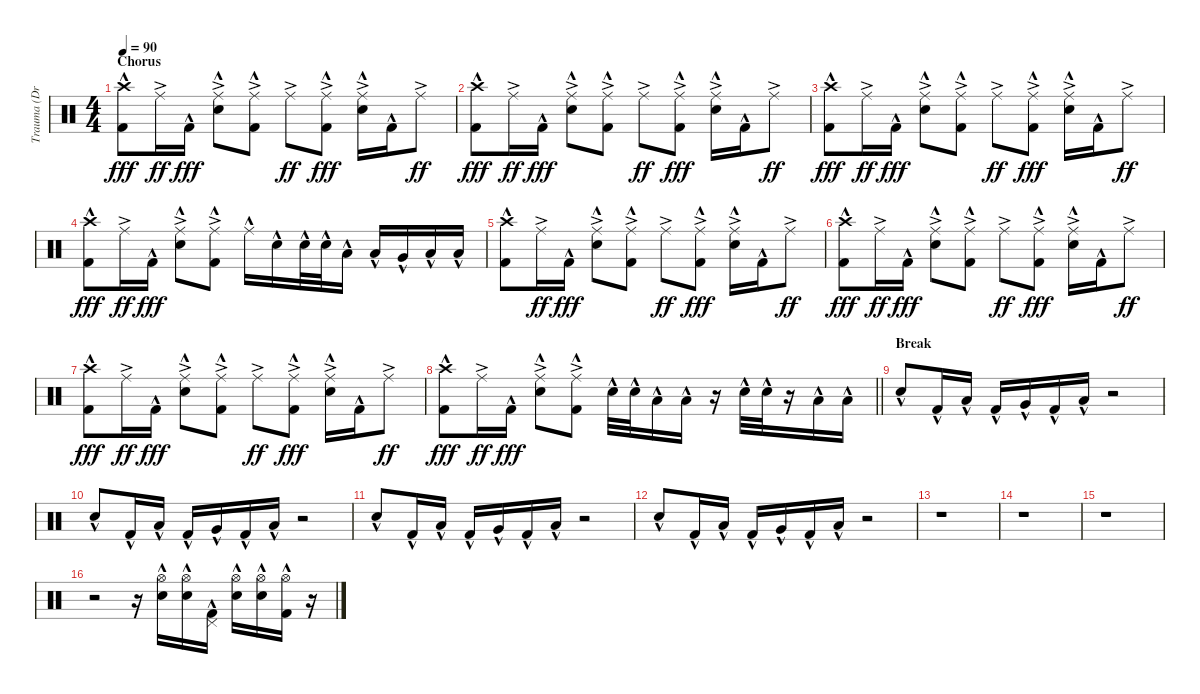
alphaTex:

\track ("Trauma (Drums)" "Trauma (Dr") {instrument percussion}
\staff {score}
\articulation defaults
\ts (4 4)
\section ("" "Chorus")
\tempo 90
\clef neutral
\ks c
("Crash high (hit)"{hac} "Kick (hit) 2"{hac}).8{dy fff} "Ride (middle)"{ac}.16{dy ff} "Kick (hit) 2"{hac}.16{dy fff} ("Ride (middle)"{ac} "Snare (hit) 2"{hac}).8 ("Ride (middle)"{ac} "Kick (hit) 2"{hac}).8 "Ride (middle)"{ac}.8{dy ff} ("Ride (middle)"{ac} "Kick (hit) 2"{hac}).8{dy fff} ("Ride (middle)"{ac} "Snare (hit) 2"{hac}).16 "Kick (hit) 2"{hac}.16 "Ride (middle)"{ac}.8{dy ff} |
("Crash high (hit)"{hac} "Kick (hit) 2"{hac}).8{dy fff} "Ride (middle)"{ac}.16{dy ff} "Kick (hit) 2"{hac}.16{dy fff} ("Ride (middle)"{ac} "Snare (hit) 2"{hac}).8 ("Ride (middle)"{ac} "Kick (hit) 2"{hac}).8 "Ride (middle)"{ac}.8{dy ff} ("Ride (middle)"{ac} "Kick (hit) 2"{hac}).8{dy fff} ("Ride (middle)"{ac} "Snare (hit) 2"{hac}).16 "Kick (hit) 2"{hac}.16 "Ride (middle)"{ac}.8{dy ff} |
("Crash high (hit)"{hac} "Kick (hit) 2"{hac}).8{dy fff} "Ride (middle)"{ac}.16{dy ff} "Kick (hit) 2"{hac}.16{dy fff} ("Ride (middle)"{ac} "Snare (hit) 2"{hac}).8 ("Ride (middle)"{ac} "Kick (hit) 2"{hac}).8 "Ride (middle)"{ac}.8{dy ff} ("Ride (middle)"{ac} "Kick (hit) 2"{hac}).8{dy fff} ("Ride (middle)"{ac} "Snare (hit) 2"{hac}).16 "Kick (hit) 2"{hac}.16 "Ride (middle)"{ac}.8{dy ff} |
("Crash high (hit)"{hac} "Kick (hit) 2"{hac}).8{dy fff} "Ride (middle)"{ac}.16{dy ff} "Kick (hit) 2"{hac}.16{dy fff} ("Ride (middle)"{ac} "Snare (hit) 2"{hac}).8 ("Ride (middle)"{ac} "Kick (hit) 2"{hac}).8 "Ride (middle)"{hac}.16 "Snare (hit) 2"{hac}.16 "Snare (hit) 2"{hac}.32 "Snare (hit) 2"{hac}.32 "Low Tom (hit)"{hac}.16 "Low Tom (hit)"{hac}.16 "Very Low Tom (hit)"{hac}.16 "Low Floor Tom (hit)"{hac}.16 "Low Floor Tom (hit)"{hac}.16 |
("Crash high (hit)"{hac} "Kick (hit) 2"{hac}).8 "Ride (middle)"{ac}.16{dy ff} "Kick (hit) 2"{hac}.16{dy fff} ("Ride (middle)"{ac} "Snare (hit) 2"{hac}).8 ("Ride (middle)"{ac} "Kick (hit) 2"{hac}).8 "Ride (middle)"{ac}.8{dy ff} ("Ride (middle)"{ac} "Kick (hit) 2"{hac}).8{dy fff} ("Ride (middle)"{ac} "Snare (hit) 2"{hac}).16 "Kick (hit) 2"{hac}.16 "Ride (middle)"{ac}.8{dy ff} |
("Crash high (hit)"{hac} "Kick (hit) 2"{hac}).8{dy fff} "Ride (middle)"{ac}.16{dy ff} "Kick (hit) 2"{hac}.16{dy fff} ("Ride (middle)"{ac} "Snare (hit) 2"{hac}).8 ("Ride (middle)"{ac} "Kick (hit) 2"{hac}).8 "Ride (middle)"{ac}.8{dy ff} ("Ride (middle)"{ac} "Kick (hit) 2"{hac}).8{dy fff} ("Ride (middle)"{ac} "Snare (hit) 2"{hac}).16 "Kick (hit) 2"{hac}.16 "Ride (middle)"{ac}.8{dy ff} |
("Crash high (hit)"{hac} "Kick (hit) 2"{hac}).8{dy fff} "Ride (middle)"{ac}.16{dy ff} "Kick (hit) 2"{hac}.16{dy fff} ("Ride (middle)"{ac} "Snare (hit) 2"{hac}).8 ("Ride (middle)"{ac} "Kick (hit) 2"{hac}).8 "Ride (middle)"{ac}.8{dy ff} ("Ride (middle)"{ac} "Kick (hit) 2"{hac}).8{dy fff} ("Ride (middle)"{ac} "Snare (hit) 2"{hac}).16 "Kick (hit) 2"{hac}.16 "Ride (middle)"{ac}.8{dy ff} |
\barLineRight lightlight
("Crash high (hit)"{hac} "Kick (hit) 2"{hac}).8{dy fff} "Ride (middle)"{ac}.16{dy ff} "Kick (hit) 2"{hac}.16{dy fff} ("Ride (middle)"{ac} "Snare (hit) 2"{hac}).8 ("Ride (middle)"{ac} "Kick (hit) 2"{hac}).8 "Snare (hit) 2"{hac}.32 "Snare (hit) 2"{hac}.32 "Low Tom (hit)"{hac}.16 "Low Tom (hit)"{hac}.16 r.16 "Snare (hit) 2"{hac}.32 "Snare (hit) 2"{hac}.32 r.16 "Low Floor Tom (hit)"{hac}.16 "Low Floor Tom (hit)"{hac}.16 |
\section ("" "Break")
"Snare (hit) 2"{hac}.8 "Kick (hit) 2"{hac}.16 "Low Tom (hit)"{hac}.16 "Kick (hit) 2"{hac}.16 "Very Low Tom (hit)"{hac}.16 "Kick (hit) 2"{hac}.16 "Low Floor Tom (hit)"{hac}.16 r.2 |
"Snare (hit) 2"{hac}.8 "Kick (hit) 2"{hac}.16 "Low Tom (hit)"{hac}.16 "Kick (hit) 2"{hac}.16 "Very Low Tom (hit)"{hac}.16 "Kick (hit) 2"{hac}.16 "Low Floor Tom (hit)"{hac}.16 r.2 |
"Snare (hit) 2"{hac}.8 "Kick (hit) 2"{hac}.16 "Low Tom (hit)"{hac}.16 "Kick (hit) 2"{hac}.16 "Very Low Tom (hit)"{hac}.16 "Kick (hit) 2"{hac}.16 "Low Floor Tom (hit)"{hac}.16 r.2 |
"Snare (hit) 2"{hac}.8 "Kick (hit) 2"{hac}.16 "Low Tom (hit)"{hac}.16 "Kick (hit) 2"{hac}.16 "Very Low Tom (hit)"{hac}.16 "Kick (hit) 2"{hac}.16 "Low Floor Tom (hit)"{hac}.16 r.2 |
r.1 |
r.1 |
r.1 |
r.2 r.16 ("Hi-Hat (open)"{hac} "Snare (hit) 2"{hac}).16 ("Hi-Hat (open)"{hac} "Snare (hit) 2"{hac}).16 ("Pedal Hi-Hat (hit)"{hac} "Kick (hit) 2"{hac}).16 ("Hi-Hat (open)"{hac} "Snare (hit) 2"{hac}).16 ("Hi-Hat (open)"{hac} "Snare (hit) 2"{hac}).16 ("Hi-Hat (open)"{hac} "Kick (hit) 2"{hac}).16 r.16
